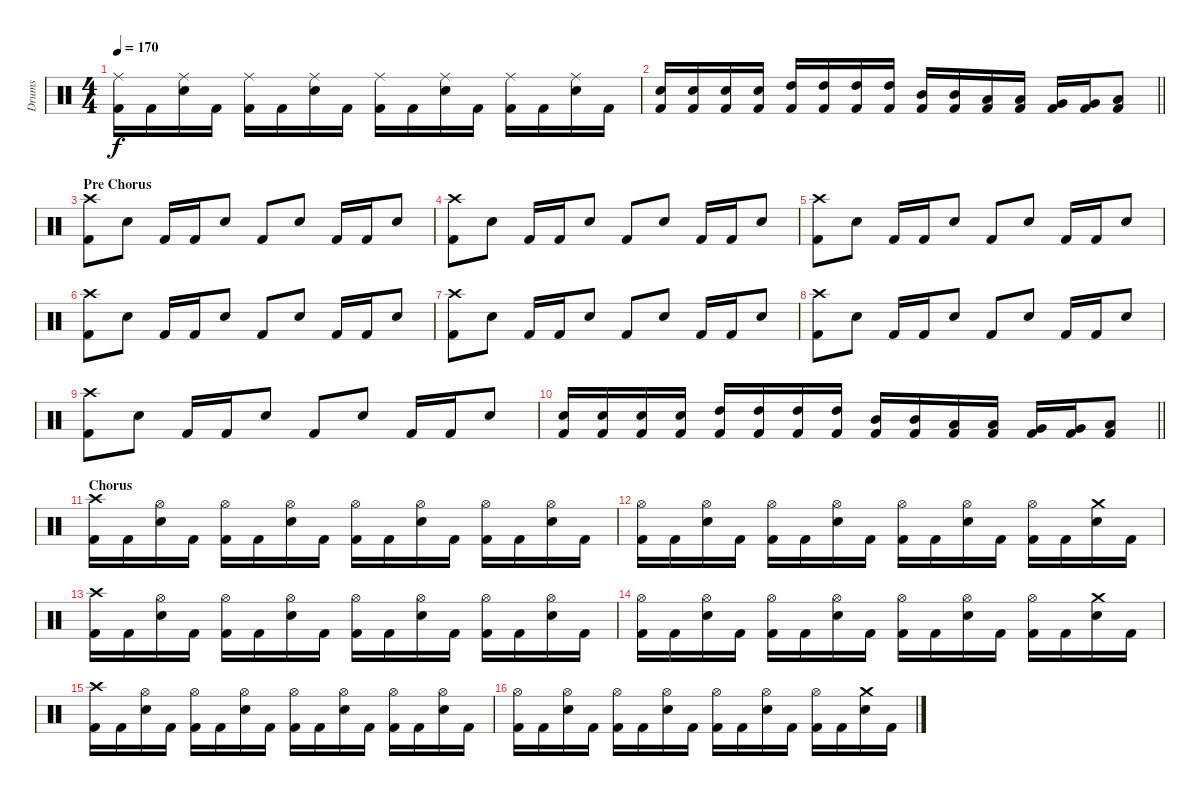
\track ("Drums" "Drums") {instrument percussion}
\staff {score}
\articulation defaults
\ts (4 4)
\tempo 170
\clef neutral
\ks c
("Ride (middle)" "Kick (hit) 2").16{dy f} "Kick (hit) 2".16 ("Ride (middle)" "Electric Snare (hit)").16 "Kick (hit) 2".16 ("Ride (middle)" "Kick (hit) 2").16 "Kick (hit) 2".16 ("Ride (middle)" "Electric Snare (hit)").16 "Kick (hit) 2".16 ("Ride (middle)" "Kick (hit) 2").16 "Kick (hit) 2".16 ("Ride (middle)" "Electric Snare (hit)").16 "Kick (hit) 2".16 ("Ride (middle)" "Kick (hit) 2").16 "Kick (hit) 2".16 ("Ride (middle)" "Electric Snare (hit)").16 "Kick (hit) 2".16 |
\barLineRight lightlight
("Electric Snare (hit)" "Kick (hit) 2").16 ("Electric Snare (hit)" "Kick (hit) 2").16 ("Electric Snare (hit)" "Kick (hit) 2").16 ("Electric Snare (hit)" "Kick (hit) 2").16 ("High Tom (hit)" "Kick (hit) 2").16 ("High Tom (hit)" "Kick (hit) 2").16 ("High Tom (hit)" "Kick (hit) 2").16 ("High Tom (hit)" "Kick (hit) 2").16 ("Mid Tom (hit)" "Kick (hit) 2").16 ("Mid Tom (hit)" "Kick (hit) 2").16 ("Low Tom (hit)" "Kick (hit) 2").16 ("Low Tom (hit)" "Kick (hit) 2").16 ("Very Low Tom (hit)" "Kick (hit) 2").16 ("Very Low Tom (hit)" "Kick (hit) 2").16 ("Low Floor Tom (hit)" "Kick (hit) 2").8 |
\section ("" "Pre Chorus")
("Crash high (hit)" "Kick (hit) 2").8 "Snare (hit) 2".8 "Kick (hit) 2".16 "Kick (hit) 2".16 "Snare (hit) 2".8 "Kick (hit) 2".8 "Snare (hit) 2".8 "Kick (hit) 2".16 "Kick (hit) 2".16 "Snare (hit) 2".8 |
("Crash high (hit)" "Kick (hit) 2").8 "Snare (hit) 2".8 "Kick (hit) 2".16 "Kick (hit) 2".16 "Snare (hit) 2".8 "Kick (hit) 2".8 "Snare (hit) 2".8 "Kick (hit) 2".16 "Kick (hit) 2".16 "Snare (hit) 2".8 |
("Crash high (hit)" "Kick (hit) 2").8 "Snare (hit) 2".8 "Kick (hit) 2".16 "Kick (hit) 2".16 "Snare (hit) 2".8 "Kick (hit) 2".8 "Snare (hit) 2".8 "Kick (hit) 2".16 "Kick (hit) 2".16 "Snare (hit) 2".8 |
("Crash high (hit)" "Kick (hit) 2").8 "Snare (hit) 2".8 "Kick (hit) 2".16 "Kick (hit) 2".16 "Snare (hit) 2".8 "Kick (hit) 2".8 "Snare (hit) 2".8 "Kick (hit) 2".16 "Kick (hit) 2".16 "Snare (hit) 2".8 |
("Crash high (hit)" "Kick (hit) 2").8 "Snare (hit) 2".8 "Kick (hit) 2".16 "Kick (hit) 2".16 "Snare (hit) 2".8 "Kick (hit) 2".8 "Snare (hit) 2".8 "Kick (hit) 2".16 "Kick (hit) 2".16 "Snare (hit) 2".8 |
("Crash high (hit)" "Kick (hit) 2").8 "Snare (hit) 2".8 "Kick (hit) 2".16 "Kick (hit) 2".16 "Snare (hit) 2".8 "Kick (hit) 2".8 "Snare (hit) 2".8 "Kick (hit) 2".16 "Kick (hit) 2".16 "Snare (hit) 2".8 |
("Crash high (hit)" "Kick (hit) 2").8 "Snare (hit) 2".8 "Kick (hit) 2".16 "Kick (hit) 2".16 "Snare (hit) 2".8 "Kick (hit) 2".8 "Snare (hit) 2".8 "Kick (hit) 2".16 "Kick (hit) 2".16 "Snare (hit) 2".8 |
\barLineRight lightlight
("Electric Snare (hit)" "Kick (hit) 2").16 ("Electric Snare (hit)" "Kick (hit) 2").16 ("Electric Snare (hit)" "Kick (hit) 2").16 ("Electric Snare (hit)" "Kick (hit) 2").16 ("High Tom (hit)" "Kick (hit) 2").16 ("High Tom (hit)" "Kick (hit) 2").16 ("High Tom (hit)" "Kick (hit) 2").16 ("High Tom (hit)" "Kick (hit) 2").16 ("Mid Tom (hit)" "Kick (hit) 2").16 ("Mid Tom (hit)" "Kick (hit) 2").16 ("Low Tom (hit)" "Kick (hit) 2").16 ("Low Tom (hit)" "Kick (hit) 2").16 ("Very Low Tom (hit)" "Kick (hit) 2").16 ("Very Low Tom (hit)" "Kick (hit) 2").16 ("Low Floor Tom (hit)" "Kick (hit) 2").8 |
\section ("" "Chorus")
("Crash high (hit)" "Kick (hit) 2").16 "Kick (hit) 2".16 ("Hi-Hat (open)" "Electric Snare (hit)").16 "Kick (hit) 2".16 ("Hi-Hat (open)" "Kick (hit) 2").16 "Kick (hit) 2".16 ("Hi-Hat (open)" "Electric Snare (hit)").16 "Kick (hit) 2".16 ("Hi-Hat (open)" "Kick (hit) 2").16 "Kick (hit) 2".16 ("Hi-Hat (open)" "Electric Snare (hit)").16 "Kick (hit) 2".16 ("Hi-Hat (open)" "Kick (hit) 2").16 "Kick (hit) 2".16 ("Hi-Hat (open)" "Electric Snare (hit)").16 "Kick (hit) 2".16 |
("Hi-Hat (open)" "Kick (hit) 2").16 "Kick (hit) 2".16 ("Hi-Hat (open)" "Electric Snare (hit)").16 "Kick (hit) 2".16 ("Hi-Hat (open)" "Kick (hit) 2").16 "Kick (hit) 2".16 ("Hi-Hat (open)" "Electric Snare (hit)").16 "Kick (hit) 2".16 ("Hi-Hat (open)" "Kick (hit) 2").16 "Kick (hit) 2".16 ("Hi-Hat (open)" "Electric Snare (hit)").16 "Kick (hit) 2".16 ("Hi-Hat (open)" "Kick (hit) 2").16 "Kick (hit) 2".16 ("Crash medium (hit)" "Electric Snare (hit)").16 "Kick (hit) 2".16 |
("Crash high (hit)" "Kick (hit) 2").16 "Kick (hit) 2".16 ("Hi-Hat (open)" "Electric Snare (hit)").16 "Kick (hit) 2".16 ("Hi-Hat (open)" "Kick (hit) 2").16 "Kick (hit) 2".16 ("Hi-Hat (open)" "Electric Snare (hit)").16 "Kick (hit) 2".16 ("Hi-Hat (open)" "Kick (hit) 2").16 "Kick (hit) 2".16 ("Hi-Hat (open)" "Electric Snare (hit)").16 "Kick (hit) 2".16 ("Hi-Hat (open)" "Kick (hit) 2").16 "Kick (hit) 2".16 ("Hi-Hat (open)" "Electric Snare (hit)").16 "Kick (hit) 2".16 |
("Hi-Hat (open)" "Kick (hit) 2").16 "Kick (hit) 2".16 ("Hi-Hat (open)" "Electric Snare (hit)").16 "Kick (hit) 2".16 ("Hi-Hat (open)" "Kick (hit) 2").16 "Kick (hit) 2".16 ("Hi-Hat (open)" "Electric Snare (hit)").16 "Kick (hit) 2".16 ("Hi-Hat (open)" "Kick (hit) 2").16 "Kick (hit) 2".16 ("Hi-Hat (open)" "Electric Snare (hit)").16 "Kick (hit) 2".16 ("Hi-Hat (open)" "Kick (hit) 2").16 "Kick (hit) 2".16 ("Crash medium (hit)" "Electric Snare (hit)").16 "Kick (hit) 2".16 |
("Crash high (hit)" "Kick (hit) 2").16 "Kick (hit) 2".16 ("Hi-Hat (open)" "Electric Snare (hit)").16 "Kick (hit) 2".16 ("Hi-Hat (open)" "Kick (hit) 2").16 "Kick (hit) 2".16 ("Hi-Hat (open)" "Electric Snare (hit)").16 "Kick (hit) 2".16 ("Hi-Hat (open)" "Kick (hit) 2").16 "Kick (hit) 2".16 ("Hi-Hat (open)" "Electric Snare (hit)").16 "Kick (hit) 2".16 ("Hi-Hat (open)" "Kick (hit) 2").16 "Kick (hit) 2".16 ("Hi-Hat (open)" "Electric Snare (hit)").16 "Kick (hit) 2".16 |
("Hi-Hat (open)" "Kick (hit) 2").16 "Kick (hit) 2".16 ("Hi-Hat (open)" "Electric Snare (hit)").16 "Kick (hit) 2".16 ("Hi-Hat (open)" "Kick (hit) 2").16 "Kick (hit) 2".16 ("Hi-Hat (open)" "Electric Snare (hit)").16 "Kick (hit) 2".16 ("Hi-Hat (open)" "Kick (hit) 2").16 "Kick (hit) 2".16 ("Hi-Hat (open)" "Electric Snare (hit)").16 "Kick (hit) 2".16 ("Hi-Hat (open)" "Kick (hit) 2").16 "Kick (hit) 2".16 ("Crash medium (hit)" "Electric Snare (hit)").16 "Kick (hit) 2".16
